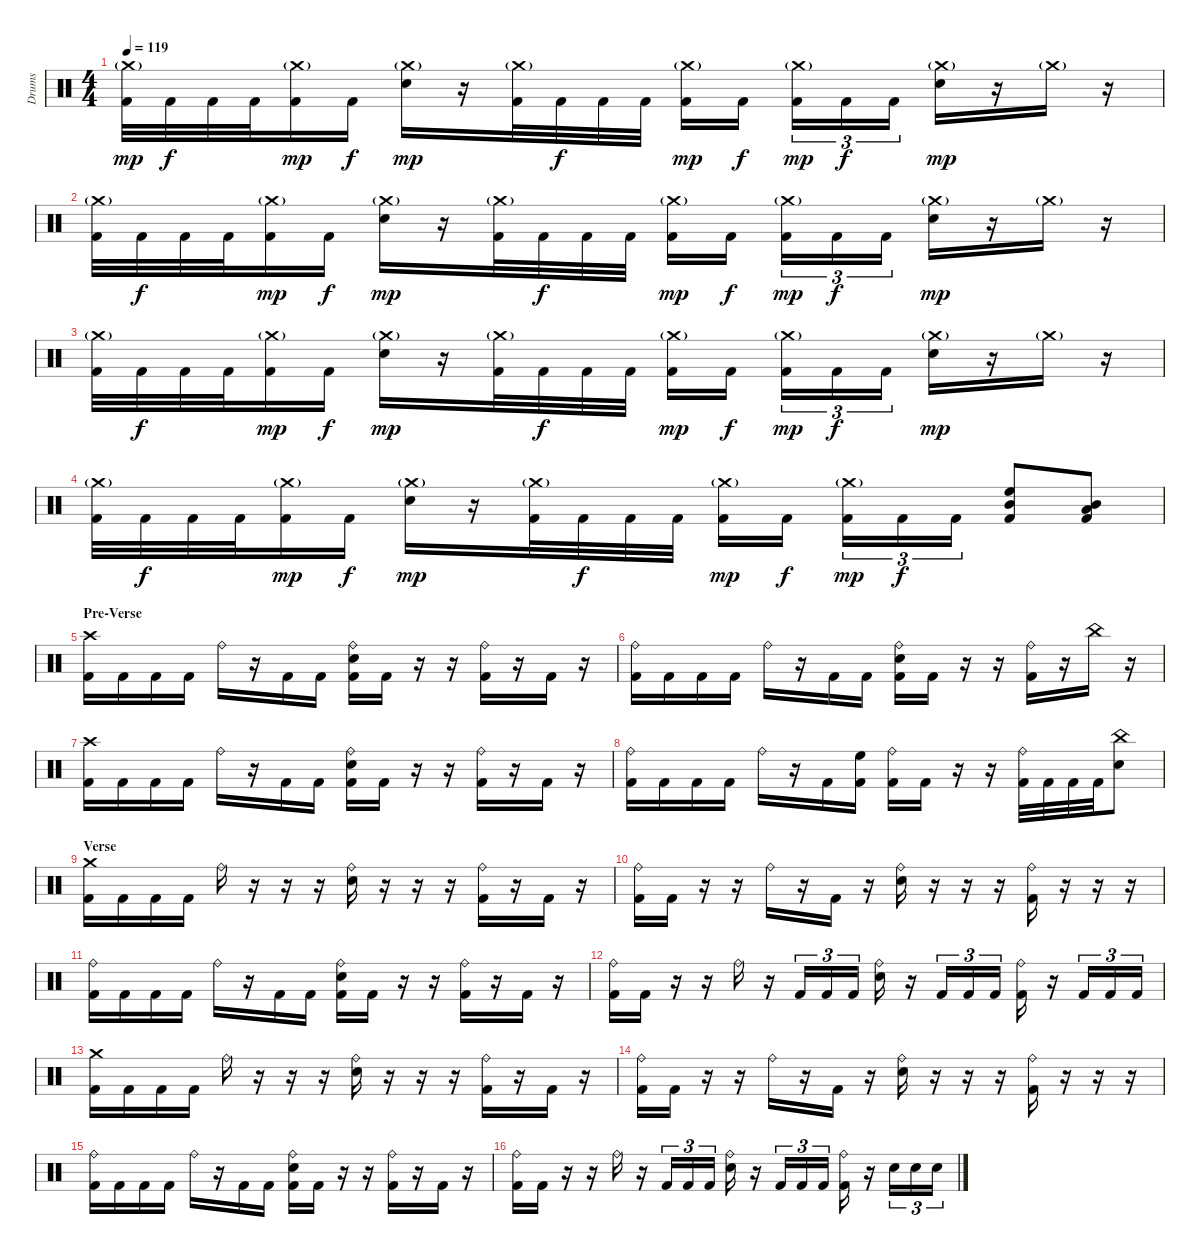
\track ("Drums" "Drums") {instrument percussion}
\staff {score}
\articulation defaults
\ts (4 4)
\tempo 119
\clef neutral
\ks c
("Crash medium (hit)"{g} "Kick (hit) 2").32{dy mp} "Kick (hit) 2".32{dy f} "Kick (hit) 2".32 "Kick (hit) 2".32 ("Crash medium (hit)"{g} "Kick (hit) 2").16{dy mp} "Kick (hit) 2".16{dy f} ("Crash medium (hit)"{g} "Electric Snare (hit)").16{dy mp} r.16 ("Crash medium (hit)"{g} "Kick (hit) 2").32 "Kick (hit) 2".32{dy f} "Kick (hit) 2".32 "Kick (hit) 2".32 ("Crash medium (hit)"{g} "Kick (hit) 2").16{dy mp} "Kick (hit) 2".16{dy f} ("Crash medium (hit)"{g} "Kick (hit) 2").16{tu (3 2) dy mp} "Kick (hit) 2".16{tu (3 2) dy f} "Kick (hit) 2".16{tu (3 2)} ("Crash medium (hit)"{g} "Electric Snare (hit)").16{dy mp} r.16 "Crash medium (hit)"{g}.16 r.16 |
("Crash medium (hit)"{g} "Kick (hit) 2").32 "Kick (hit) 2".32{dy f} "Kick (hit) 2".32 "Kick (hit) 2".32 ("Crash medium (hit)"{g} "Kick (hit) 2").16{dy mp} "Kick (hit) 2".16{dy f} ("Crash medium (hit)"{g} "Electric Snare (hit)").16{dy mp} r.16 ("Crash medium (hit)"{g} "Kick (hit) 2").32 "Kick (hit) 2".32{dy f} "Kick (hit) 2".32 "Kick (hit) 2".32 ("Crash medium (hit)"{g} "Kick (hit) 2").16{dy mp} "Kick (hit) 2".16{dy f} ("Crash medium (hit)"{g} "Kick (hit) 2").16{tu (3 2) dy mp} "Kick (hit) 2".16{tu (3 2) dy f} "Kick (hit) 2".16{tu (3 2)} ("Crash medium (hit)"{g} "Electric Snare (hit)").16{dy mp} r.16 "Crash medium (hit)"{g}.16 r.16 |
("Crash medium (hit)"{g} "Kick (hit) 2").32 "Kick (hit) 2".32{dy f} "Kick (hit) 2".32 "Kick (hit) 2".32 ("Crash medium (hit)"{g} "Kick (hit) 2").16{dy mp} "Kick (hit) 2".16{dy f} ("Crash medium (hit)"{g} "Electric Snare (hit)").16{dy mp} r.16 ("Crash medium (hit)"{g} "Kick (hit) 2").32 "Kick (hit) 2".32{dy f} "Kick (hit) 2".32 "Kick (hit) 2".32 ("Crash medium (hit)"{g} "Kick (hit) 2").16{dy mp} "Kick (hit) 2".16{dy f} ("Crash medium (hit)"{g} "Kick (hit) 2").16{tu (3 2) dy mp} "Kick (hit) 2".16{tu (3 2) dy f} "Kick (hit) 2".16{tu (3 2)} ("Crash medium (hit)"{g} "Electric Snare (hit)").16{dy mp} r.16 "Crash medium (hit)"{g}.16 r.16 |
("Crash medium (hit)"{g} "Kick (hit) 2").32 "Kick (hit) 2".32{dy f} "Kick (hit) 2".32 "Kick (hit) 2".32 ("Crash medium (hit)"{g} "Kick (hit) 2").16{dy mp} "Kick (hit) 2".16{dy f} ("Crash medium (hit)"{g} "Electric Snare (hit)").16{dy mp} r.16 ("Crash medium (hit)"{g} "Kick (hit) 2").32 "Kick (hit) 2".32{dy f} "Kick (hit) 2".32 "Kick (hit) 2".32 ("Crash medium (hit)"{g} "Kick (hit) 2").16{dy mp} "Kick (hit) 2".16{dy f} ("Crash medium (hit)"{g} "Kick (hit) 2").16{tu (3 2) dy mp} "Kick (hit) 2".16{tu (3 2) dy f} "Kick (hit) 2".16{tu (3 2)} ("High Floor Tom (hit)" "Mid Tom (hit)" "Kick (hit) 2").8 ("Mid Tom (hit)" "Low Tom (hit)" "Kick (hit) 2").8 |
\section ("" "Pre-Verse")
("Crash high (hit)" "Kick (hit) 2").16 "Kick (hit) 2".16 "Kick (hit) 2".16 "Kick (hit) 2".16 "Ride (bell)".16 r.16 "Kick (hit) 2".16 "Kick (hit) 2".16 ("Ride (bell)" "Electric Snare (hit)" "Kick (hit) 2").16 "Kick (hit) 2".16 r.16 r.16 ("Ride (bell)" "Kick (hit) 2").16 r.16 "Kick (hit) 2".16 r.16 |
("Ride (bell)" "Kick (hit) 2").16 "Kick (hit) 2".16 "Kick (hit) 2".16 "Kick (hit) 2".16 "Ride (bell)".16 r.16 "Kick (hit) 2".16 "Kick (hit) 2".16 ("Ride (bell)" "Electric Snare (hit)" "Kick (hit) 2").16 "Kick (hit) 2".16 r.16 r.16 ("Ride (bell)" "Kick (hit) 2").16 r.16 "China (hit)".16 r.16 |
("Crash high (hit)" "Kick (hit) 2").16 "Kick (hit) 2".16 "Kick (hit) 2".16 "Kick (hit) 2".16 "Ride (bell)".16 r.16 "Kick (hit) 2".16 "Kick (hit) 2".16 ("Ride (bell)" "Electric Snare (hit)" "Kick (hit) 2").16 "Kick (hit) 2".16 r.16 r.16 ("Ride (bell)" "Kick (hit) 2").16 r.16 "Kick (hit) 2".16 r.16 |
("Ride (bell)" "Kick (hit) 2").16 "Kick (hit) 2".16 "Kick (hit) 2".16 "Kick (hit) 2".16 "Ride (bell)".16 r.16 "Kick (hit) 2".16 ("High Floor Tom (hit)" "Kick (hit) 2").16 ("Ride (bell)" "Kick (hit) 2").16 "Kick (hit) 2".16 r.16 r.16 ("Ride (bell)" "Kick (hit) 2").32 "Kick (hit) 2".32 "Kick (hit) 2".32 "Kick (hit) 2".32 ("China (hit)" "Electric Snare (hit)").8 |
\section ("" "Verse")
("Crash medium (hit)" "Kick (hit) 2").16 "Kick (hit) 2".16 "Kick (hit) 2".16 "Kick (hit) 2".16 "Ride (bell)".16 r.16 r.16 r.16 ("Ride (bell)" "Electric Snare (hit)").16 r.16 r.16 r.16 ("Ride (bell)" "Kick (hit) 2").16 r.16 "Kick (hit) 2".16 r.16 |
("Ride (bell)" "Kick (hit) 2").16 "Kick (hit) 2".16 r.16 r.16 "Ride (bell)".16 r.16 "Kick (hit) 2".16 r.16 ("Ride (bell)" "Electric Snare (hit)").16 r.16 r.16 r.16 ("Ride (bell)" "Kick (hit) 2").16 r.16 r.16 r.16 |
("Ride (bell)" "Kick (hit) 2").16 "Kick (hit) 2".16 "Kick (hit) 2".16 "Kick (hit) 2".16 "Ride (bell)".16 r.16 "Kick (hit) 2".16 "Kick (hit) 2".16 ("Ride (bell)" "Electric Snare (hit)" "Kick (hit) 2").16 "Kick (hit) 2".16 r.16 r.16 ("Ride (bell)" "Kick (hit) 2").16 r.16 "Kick (hit) 2".16 r.16 |
("Ride (bell)" "Kick (hit) 2").16 "Kick (hit) 2".16 r.16 r.16 "Ride (bell)".16 r.16 "Kick (hit) 2".16{tu (3 2)} "Kick (hit) 2".16{tu (3 2)} "Kick (hit) 2".16{tu (3 2)} ("Ride (bell)" "Electric Snare (hit)").16 r.16 "Kick (hit) 2".16{tu (3 2)} "Kick (hit) 2".16{tu (3 2)} "Kick (hit) 2".16{tu (3 2)} ("Ride (bell)" "Kick (hit) 2").16 r.16 "Kick (hit) 2".16{tu (3 2)} "Kick (hit) 2".16{tu (3 2)} "Kick (hit) 2".16{tu (3 2)} |
("Crash medium (hit)" "Kick (hit) 2").16 "Kick (hit) 2".16 "Kick (hit) 2".16 "Kick (hit) 2".16 "Ride (bell)".16 r.16 r.16 r.16 ("Ride (bell)" "Electric Snare (hit)").16 r.16 r.16 r.16 ("Ride (bell)" "Kick (hit) 2").16 r.16 "Kick (hit) 2".16 r.16 |
("Ride (bell)" "Kick (hit) 2").16 "Kick (hit) 2".16 r.16 r.16 "Ride (bell)".16 r.16 "Kick (hit) 2".16 r.16 ("Ride (bell)" "Electric Snare (hit)").16 r.16 r.16 r.16 ("Ride (bell)" "Kick (hit) 2").16 r.16 r.16 r.16 |
("Ride (bell)" "Kick (hit) 2").16 "Kick (hit) 2".16 "Kick (hit) 2".16 "Kick (hit) 2".16 "Ride (bell)".16 r.16 "Kick (hit) 2".16 "Kick (hit) 2".16 ("Ride (bell)" "Electric Snare (hit)" "Kick (hit) 2").16 "Kick (hit) 2".16 r.16 r.16 ("Ride (bell)" "Kick (hit) 2").16 r.16 "Kick (hit) 2".16 r.16 |
("Ride (bell)" "Kick (hit) 2").16 "Kick (hit) 2".16 r.16 r.16 "Ride (bell)".16 r.16 "Kick (hit) 2".16{tu (3 2)} "Kick (hit) 2".16{tu (3 2)} "Kick (hit) 2".16{tu (3 2)} ("Ride (bell)" "Electric Snare (hit)").16 r.16 "Kick (hit) 2".16{tu (3 2)} "Kick (hit) 2".16{tu (3 2)} "Kick (hit) 2".16{tu (3 2)} ("Ride (bell)" "Kick (hit) 2").16 r.16 "Electric Snare (hit)".16{tu (3 2)} "Electric Snare (hit)".16{tu (3 2)} "Electric Snare (hit)".16{tu (3 2)}
